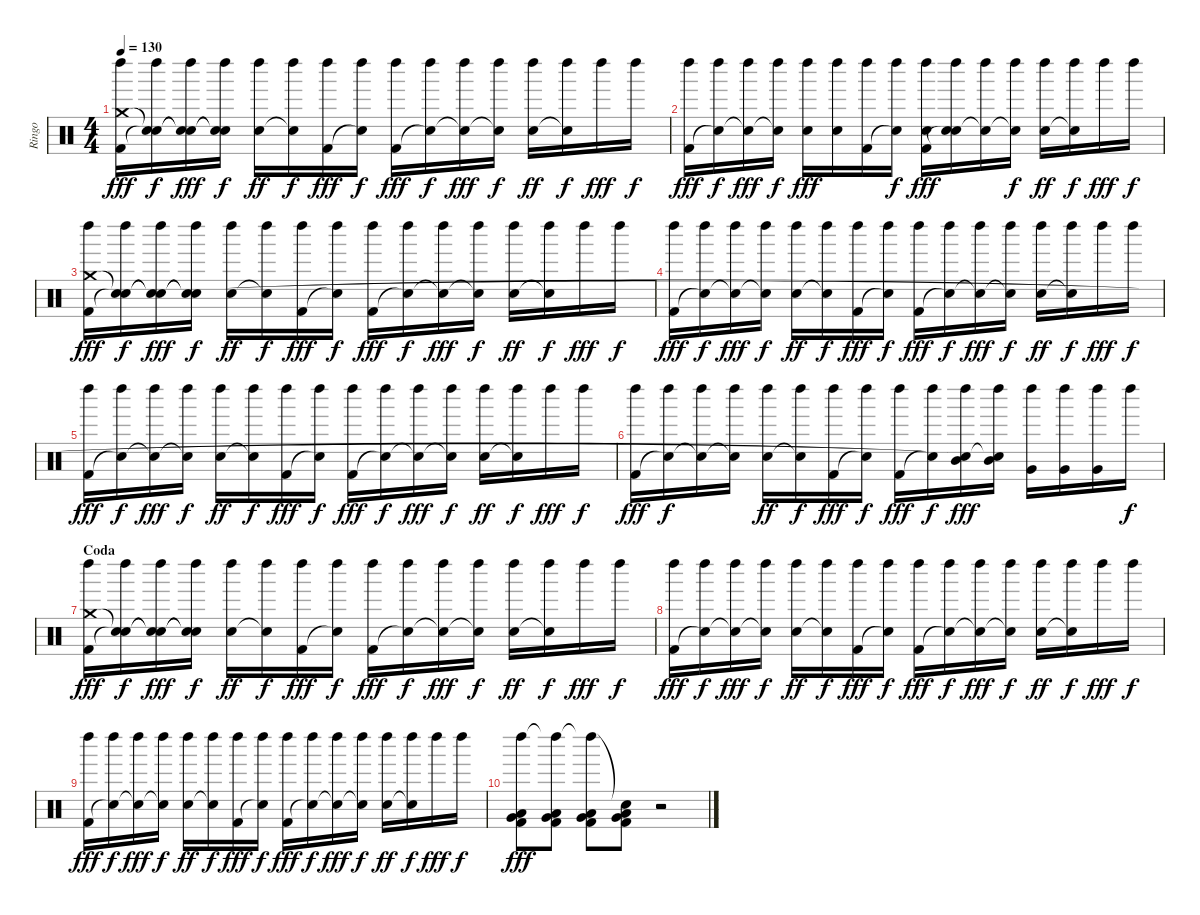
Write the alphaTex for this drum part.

\track ("Ringo" "Ringo") {instrument percussion}
\staff {score}
\articulation defaults
\ts (4 4)
\tempo 130
\clef neutral
\ks c
("Left Maraca (hit)" "Crash medium (hit)" "Kick (hit) 2").16{dy fff} ("Left Maraca (hit)" "Snare (hit)"{t} "Snare (hit)"{t}).16{dy f} ("Left Maraca (hit)" "Snare (hit)"{t} "Snare (hit)"{t}).16{dy fff} ("Left Maraca (hit)" "Snare (hit)"{t} "Snare (hit)"{t}).16{dy f} ("Left Maraca (hit)" "Electric Snare (hit)").16{dy ff} ("Left Maraca (hit)" "Snare (hit)"{t}).16{dy f} ("Left Maraca (hit)" "Kick (hit) 2").16{dy fff} ("Left Maraca (hit)" "Snare (hit)"{t}).16{dy f} ("Left Maraca (hit)" "Kick (hit) 2").16{dy fff} ("Left Maraca (hit)" "Snare (hit)"{t}).16{dy f} ("Left Maraca (hit)" "Snare (hit)"{t}).16{dy fff} ("Left Maraca (hit)" "Snare (hit)"{t}).16{dy f} ("Left Maraca (hit)" "Electric Snare (hit)").16{dy ff} ("Left Maraca (hit)" "Snare (hit)"{t}).16{dy f} "Left Maraca (hit)".16{dy fff} "Left Maraca (hit)".16{dy f} |
("Left Maraca (hit)" "Kick (hit) 2").16{dy fff} ("Left Maraca (hit)" "Snare (hit)"{t}).16{dy f} ("Left Maraca (hit)" "Snare (hit)"{t}).16{dy fff} ("Left Maraca (hit)" "Snare (hit)"{t}).16{dy f} ("Left Maraca (hit)" "Electric Snare (hit)").16{dy fff} ("Left Maraca (hit)" "Electric Snare (hit)").16 ("Left Maraca (hit)" "Kick (hit) 2").16 ("Left Maraca (hit)" "Snare (hit)"{t}).16{dy f} ("Left Maraca (hit)" "Electric Snare (hit)" "Kick (hit) 2").16{dy fff} ("Left Maraca (hit)" "Electric Snare (hit)" "Snare (hit)"{t}).16 ("Left Maraca (hit)" "Snare (hit)"{t}).16 ("Left Maraca (hit)" "Snare (hit)"{t}).16{dy f} ("Left Maraca (hit)" "Electric Snare (hit)").16{dy ff} ("Left Maraca (hit)" "Snare (hit)"{t}).16{dy f} "Left Maraca (hit)".16{dy fff} "Left Maraca (hit)".16{dy f} |
("Left Maraca (hit)" "Crash medium (hit)" "Kick (hit) 2").16{dy fff} ("Left Maraca (hit)" "Snare (hit)"{t} "Snare (hit)"{t}).16{dy f} ("Left Maraca (hit)" "Snare (hit)"{t} "Snare (hit)"{t}).16{dy fff} ("Left Maraca (hit)" "Snare (hit)"{t} "Snare (hit)"{t}).16{dy f} ("Left Maraca (hit)" "Electric Snare (hit)").16{dy ff} ("Left Maraca (hit)" "Snare (hit)"{t}).16{dy f} ("Left Maraca (hit)" "Kick (hit) 2").16{dy fff} ("Left Maraca (hit)" "Snare (hit)"{t}).16{dy f} ("Left Maraca (hit)" "Kick (hit) 2").16{dy fff} ("Left Maraca (hit)" "Snare (hit)"{t}).16{dy f} ("Left Maraca (hit)" "Snare (hit)"{t}).16{dy fff} ("Left Maraca (hit)" "Snare (hit)"{t}).16{dy f} ("Left Maraca (hit)" "Electric Snare (hit)").16{dy ff} ("Left Maraca (hit)" "Snare (hit)"{t}).16{dy f} "Left Maraca (hit)".16{dy fff} "Left Maraca (hit)".16{dy f} |
("Left Maraca (hit)" "Kick (hit) 2").16{dy fff} ("Left Maraca (hit)" "Snare (hit)"{t}).16{dy f} ("Left Maraca (hit)" "Snare (hit)"{t}).16{dy fff} ("Left Maraca (hit)" "Snare (hit)"{t}).16{dy f} ("Left Maraca (hit)" "Electric Snare (hit)").16{dy ff} ("Left Maraca (hit)" "Snare (hit)"{t}).16{dy f} ("Left Maraca (hit)" "Kick (hit) 2").16{dy fff} ("Left Maraca (hit)" "Snare (hit)"{t}).16{dy f} ("Left Maraca (hit)" "Kick (hit) 2").16{dy fff} ("Left Maraca (hit)" "Snare (hit)"{t}).16{dy f} ("Left Maraca (hit)" "Snare (hit)"{t}).16{dy fff} ("Left Maraca (hit)" "Snare (hit)"{t}).16{dy f} ("Left Maraca (hit)" "Electric Snare (hit)").16{dy ff} ("Left Maraca (hit)" "Snare (hit)"{t}).16{dy f} "Left Maraca (hit)".16{dy fff} "Left Maraca (hit)".16{dy f} |
("Left Maraca (hit)" "Kick (hit) 2").16{dy fff} ("Left Maraca (hit)" "Snare (hit)"{t}).16{dy f} ("Left Maraca (hit)" "Snare (hit)"{t}).16{dy fff} ("Left Maraca (hit)" "Snare (hit)"{t}).16{dy f} ("Left Maraca (hit)" "Electric Snare (hit)").16{dy ff} ("Left Maraca (hit)" "Snare (hit)"{t}).16{dy f} ("Left Maraca (hit)" "Kick (hit) 2").16{dy fff} ("Left Maraca (hit)" "Snare (hit)"{t}).16{dy f} ("Left Maraca (hit)" "Kick (hit) 2").16{dy fff} ("Left Maraca (hit)" "Snare (hit)"{t}).16{dy f} ("Left Maraca (hit)" "Snare (hit)"{t}).16{dy fff} ("Left Maraca (hit)" "Snare (hit)"{t}).16{dy f} ("Left Maraca (hit)" "Electric Snare (hit)").16{dy ff} ("Left Maraca (hit)" "Snare (hit)"{t}).16{dy f} "Left Maraca (hit)".16{dy fff} "Left Maraca (hit)".16{dy f} |
("Left Maraca (hit)" "Kick (hit) 2").16{dy fff} ("Left Maraca (hit)" "Snare (hit)"{t}).16{dy f} ("Left Maraca (hit)" "Snare (hit)"{t}).16 ("Left Maraca (hit)" "Snare (hit)"{t}).16 ("Left Maraca (hit)" "Electric Snare (hit)").16{dy ff} ("Left Maraca (hit)" "Snare (hit)"{t}).16{dy f} ("Left Maraca (hit)" "Kick (hit) 2").16{dy fff} ("Left Maraca (hit)" "Snare (hit)"{t}).16{dy f} ("Left Maraca (hit)" "Kick (hit) 2").16{dy fff} ("Left Maraca (hit)" "Snare (hit)"{t}).16{dy f} ("Left Maraca (hit)" "Mid Tom (hit)" "Snare (hit)"{t}).16{dy fff} ("Left Maraca (hit)" "Mid Tom (hit)" "Snare (hit)"{t}).16 ("Left Maraca (hit)" "Very Low Tom (hit)").16 ("Left Maraca (hit)" "Very Low Tom (hit)").16 ("Left Maraca (hit)" "Very Low Tom (hit)").16 "Left Maraca (hit)".16{dy f} |
\section ("" "Coda")
("Left Maraca (hit)" "Crash medium (hit)" "Kick (hit) 2").16{dy fff} ("Left Maraca (hit)" "Snare (hit)"{t} "Snare (hit)"{t}).16{dy f} ("Left Maraca (hit)" "Snare (hit)"{t} "Snare (hit)"{t}).16{dy fff} ("Left Maraca (hit)" "Snare (hit)"{t} "Snare (hit)"{t}).16{dy f} ("Left Maraca (hit)" "Electric Snare (hit)").16{dy ff} ("Left Maraca (hit)" "Snare (hit)"{t}).16{dy f} ("Left Maraca (hit)" "Kick (hit) 2").16{dy fff} ("Left Maraca (hit)" "Snare (hit)"{t}).16{dy f} ("Left Maraca (hit)" "Kick (hit) 2").16{dy fff} ("Left Maraca (hit)" "Snare (hit)"{t}).16{dy f} ("Left Maraca (hit)" "Snare (hit)"{t}).16{dy fff} ("Left Maraca (hit)" "Snare (hit)"{t}).16{dy f} ("Left Maraca (hit)" "Electric Snare (hit)").16{dy ff} ("Left Maraca (hit)" "Snare (hit)"{t}).16{dy f} "Left Maraca (hit)".16{dy fff} "Left Maraca (hit)".16{dy f} |
("Left Maraca (hit)" "Kick (hit) 2").16{dy fff} ("Left Maraca (hit)" "Snare (hit)"{t}).16{dy f} ("Left Maraca (hit)" "Snare (hit)"{t}).16{dy fff} ("Left Maraca (hit)" "Snare (hit)"{t}).16{dy f} ("Left Maraca (hit)" "Electric Snare (hit)").16{dy ff} ("Left Maraca (hit)" "Snare (hit)"{t}).16{dy f} ("Left Maraca (hit)" "Kick (hit) 2").16{dy fff} ("Left Maraca (hit)" "Snare (hit)"{t}).16{dy f} ("Left Maraca (hit)" "Kick (hit) 2").16{dy fff} ("Left Maraca (hit)" "Snare (hit)"{t}).16{dy f} ("Left Maraca (hit)" "Snare (hit)"{t}).16{dy fff} ("Left Maraca (hit)" "Snare (hit)"{t}).16{dy f} ("Left Maraca (hit)" "Electric Snare (hit)").16{dy ff} ("Left Maraca (hit)" "Snare (hit)"{t}).16{dy f} "Left Maraca (hit)".16{dy fff} "Left Maraca (hit)".16{dy f} |
("Left Maraca (hit)" "Kick (hit) 2").16{dy fff} ("Left Maraca (hit)" "Snare (hit)"{t}).16{dy f} ("Left Maraca (hit)" "Snare (hit)"{t}).16{dy fff} ("Left Maraca (hit)" "Snare (hit)"{t}).16{dy f} ("Left Maraca (hit)" "Electric Snare (hit)").16{dy ff} ("Left Maraca (hit)" "Snare (hit)"{t}).16{dy f} ("Left Maraca (hit)" "Kick (hit) 2").16{dy fff} ("Left Maraca (hit)" "Snare (hit)"{t}).16{dy f} ("Left Maraca (hit)" "Kick (hit) 2").16{dy fff} ("Left Maraca (hit)" "Snare (hit)"{t}).16{dy f} ("Left Maraca (hit)" "Snare (hit)"{t}).16{dy fff} ("Left Maraca (hit)" "Snare (hit)"{t}).16{dy f} ("Left Maraca (hit)" "Electric Snare (hit)").16{dy ff} ("Left Maraca (hit)" "Snare (hit)"{t}).16{dy f} "Left Maraca (hit)".16{dy fff} "Left Maraca (hit)".16{dy f} |
("Left Maraca (hit)" "Low Tom (hit)" "Very Low Tom (hit)" "Kick (hit) 2").8{dy fff} ("Left Maraca (hit)"{t} "Low Tom (hit)" "Very Low Tom (hit)" "Kick (hit) 2").8 ("Left Maraca (hit)"{t} "Low Tom (hit)" "Very Low Tom (hit)" "Kick (hit) 2").8 ("Snare (hit)"{t} "Low Tom (hit)" "Very Low Tom (hit)" "Kick (hit) 2").8 r.2
